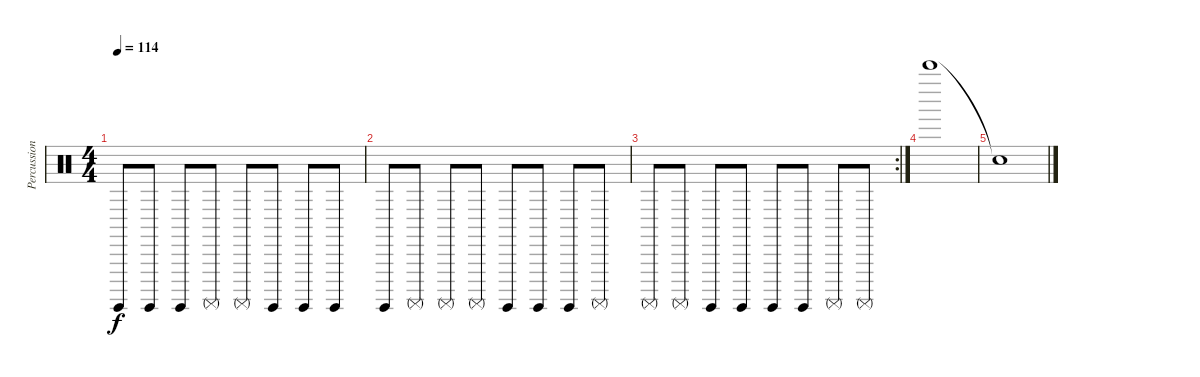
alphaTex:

\track ("Percussion" "Percussion") {instrument percussion}
\staff {score}
\articulation defaults
\ts (4 4)
\tempo 114
\clef neutral
\ks c "Surdo (hit)".8{dy f} "Surdo (hit)".8 "Surdo (hit)".8 "Surdo (mute)".8 "Surdo (mute)".8 "Surdo (hit)".8 "Surdo (hit)".8 "Surdo (hit)".8
|
"Surdo (hit)".8 "Surdo (mute)".8 "Surdo (mute)".8 "Surdo (mute)".8 "Surdo (hit)".8 "Surdo (hit)".8 "Surdo (hit)".8 "Surdo (mute)".8 |
\rc 2 "Surdo (mute)".8 "Surdo (mute)".8 "Surdo (hit)".8 "Surdo (hit)".8 "Surdo (hit)".8 "Surdo (hit)".8 "Surdo (mute)".8 "Surdo (mute)".8
|
"Bell Tree (hit)".1 |
"Snare (hit)"{t}.1
